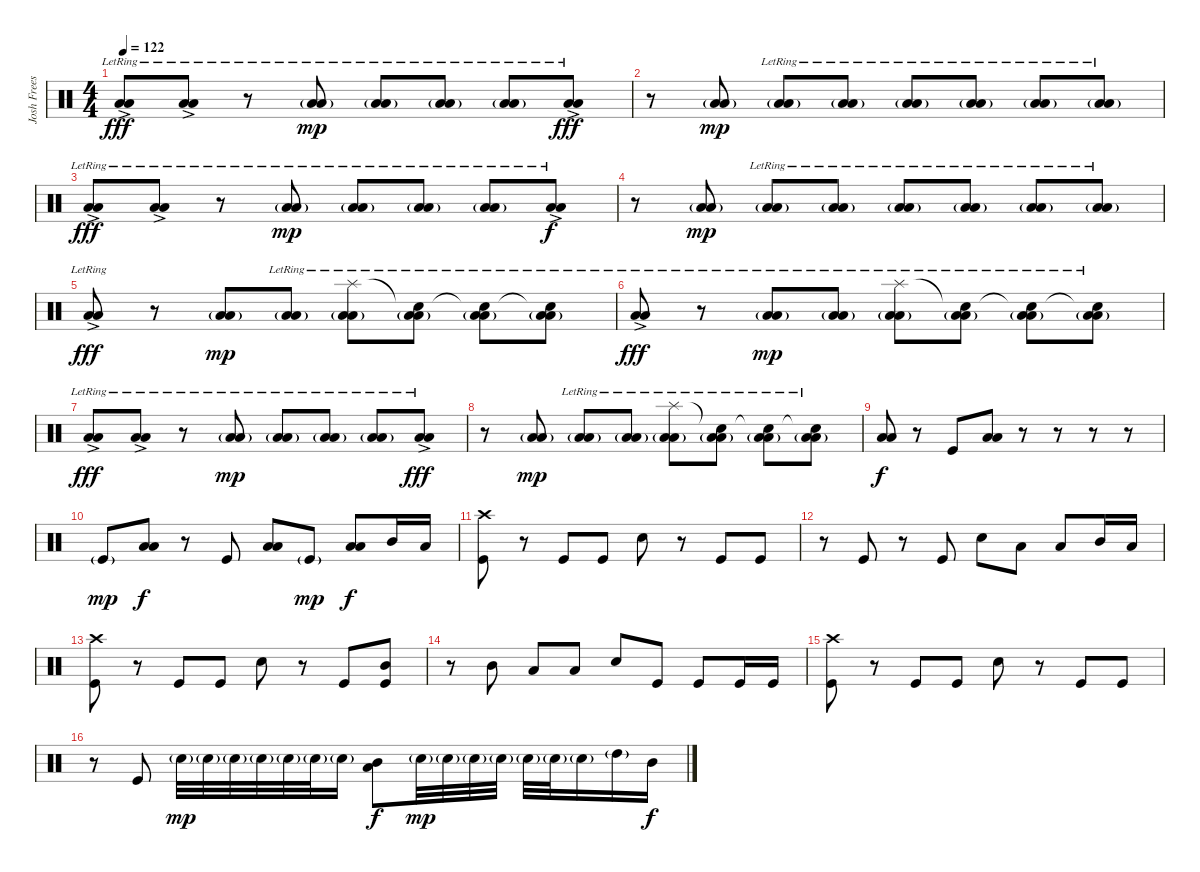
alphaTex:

\track ("Josh Freese" "Josh Frees") {instrument percussion}
\staff {score}
\articulation defaults
\ts (4 4)
\tempo 122
\clef neutral
\ks c
("Low Tom (hit)"{ac lr} "Low Floor Tom (hit)"{ac lr}).8{dy fff volume 14} ("Low Tom (hit)"{ac lr} "Low Floor Tom (hit)"{ac lr}).8 r.8 ("Low Tom (hit)"{g lr} "Low Floor Tom (hit)"{g lr}).8{dy mp} ("Low Tom (hit)"{g lr} "Low Floor Tom (hit)"{g lr}).8 ("Low Tom (hit)"{g lr} "Low Floor Tom (hit)"{g lr}).8 ("Low Tom (hit)"{g lr} "Low Floor Tom (hit)"{g lr}).8 ("Low Tom (hit)"{ac lr} "Low Floor Tom (hit)"{ac lr}).8{dy fff} |
r.8 ("Low Tom (hit)"{g} "Low Floor Tom (hit)"{g}).8{dy mp} ("Low Tom (hit)"{g lr} "Low Floor Tom (hit)"{g lr}).8 ("Low Tom (hit)"{g lr} "Low Floor Tom (hit)"{g lr}).8 ("Low Tom (hit)"{g lr} "Low Floor Tom (hit)"{g lr}).8 ("Low Tom (hit)"{g lr} "Low Floor Tom (hit)"{g lr}).8 ("Low Tom (hit)"{g lr} "Low Floor Tom (hit)"{g lr}).8 ("Low Tom (hit)"{g lr} "Low Floor Tom (hit)"{g lr}).8 |
("Low Tom (hit)"{ac lr} "Low Floor Tom (hit)"{ac lr}).8{dy fff} ("Low Tom (hit)"{ac lr} "Low Floor Tom (hit)"{ac lr}).8 r.8 ("Low Tom (hit)"{g lr} "Low Floor Tom (hit)"{g lr}).8{dy mp} ("Low Tom (hit)"{g lr} "Low Floor Tom (hit)"{g lr}).8 ("Low Tom (hit)"{g lr} "Low Floor Tom (hit)"{g lr}).8 ("Low Tom (hit)"{g lr} "Low Floor Tom (hit)"{g lr}).8 ("Low Tom (hit)"{ac lr} "Low Floor Tom (hit)"{ac lr}).8{dy f} |
r.8 ("Low Tom (hit)"{g} "Low Floor Tom (hit)"{g}).8{dy mp} ("Low Tom (hit)"{g lr} "Low Floor Tom (hit)"{g lr}).8 ("Low Tom (hit)"{g lr} "Low Floor Tom (hit)"{g lr}).8 ("Low Tom (hit)"{g lr} "Low Floor Tom (hit)"{g lr}).8 ("Low Tom (hit)"{g lr} "Low Floor Tom (hit)"{g lr}).8 ("Low Tom (hit)"{g lr} "Low Floor Tom (hit)"{g lr}).8 ("Low Tom (hit)"{g lr} "Low Floor Tom (hit)"{g lr}).8 |
("Low Tom (hit)"{ac lr} "Low Floor Tom (hit)"{ac lr}).8{dy fff} r.8 ("Low Tom (hit)"{g} "Low Floor Tom (hit)"{g}).8{dy mp} ("Low Tom (hit)"{g lr} "Low Floor Tom (hit)"{g lr}).8 ("Splash (hit)" "Low Tom (hit)"{g lr} "Low Floor Tom (hit)"{g lr}).8 ("Snare (hit)"{t} "Low Tom (hit)"{g lr} "Low Floor Tom (hit)"{g lr}).8 ("Snare (hit)"{t} "Low Tom (hit)"{g lr} "Low Floor Tom (hit)"{g lr}).8 ("Snare (hit)"{t} "Low Tom (hit)"{g lr} "Low Floor Tom (hit)"{g lr}).8 |
("Low Tom (hit)"{ac lr} "Low Floor Tom (hit)"{ac lr}).8{dy fff} r.8 ("Low Tom (hit)"{g lr} "Low Floor Tom (hit)"{g lr}).8{dy mp} ("Low Tom (hit)"{g lr} "Low Floor Tom (hit)"{g lr}).8 ("Splash (hit)" "Low Tom (hit)"{g lr} "Low Floor Tom (hit)"{g lr}).8 ("Snare (hit)"{t} "Low Tom (hit)"{g lr} "Low Floor Tom (hit)"{g lr}).8 ("Snare (hit)"{t} "Low Tom (hit)"{g lr} "Low Floor Tom (hit)"{g}).8 ("Snare (hit)"{t} "Low Tom (hit)"{g lr} "Low Floor Tom (hit)"{g lr}).8 |
("Low Tom (hit)"{ac lr} "Low Floor Tom (hit)"{ac lr}).8{dy fff} ("Low Tom (hit)"{ac lr} "Low Floor Tom (hit)"{ac lr}).8 r.8 ("Low Tom (hit)"{g lr} "Low Floor Tom (hit)"{g lr}).8{dy mp} ("Low Tom (hit)"{g lr} "Low Floor Tom (hit)"{g lr}).8 ("Low Tom (hit)"{g lr} "Low Floor Tom (hit)"{g lr}).8 ("Low Tom (hit)"{g lr} "Low Floor Tom (hit)"{g lr}).8 ("Low Tom (hit)"{ac lr} "Low Floor Tom (hit)"{ac lr}).8{dy fff} |
r.8 ("Low Tom (hit)"{g} "Low Floor Tom (hit)"{g}).8{dy mp} ("Low Tom (hit)"{g lr} "Low Floor Tom (hit)"{g lr}).8 ("Low Tom (hit)"{g lr} "Low Floor Tom (hit)"{g lr}).8 ("Splash (hit)" "Low Tom (hit)"{g lr} "Low Floor Tom (hit)"{g lr}).8 ("Snare (hit)"{t} "Low Tom (hit)"{g lr} "Low Floor Tom (hit)"{g lr}).8 ("Snare (hit)"{t} "Low Tom (hit)"{g lr} "Low Floor Tom (hit)"{g lr}).8 ("Snare (hit)"{t} "Low Tom (hit)"{g lr} "Low Floor Tom (hit)"{g lr}).8 |
("Low Tom (hit)" "Low Floor Tom (hit)").8{dy f} r.8 "Kick (hit)".8 ("Low Tom (hit)" "Low Floor Tom (hit)").8 r.8 r.8 r.8 r.8 |
"Kick (hit)"{g}.8{dy mp} ("Low Tom (hit)" "Low Floor Tom (hit)").8{dy f} r.8 "Kick (hit)".8 ("Low Tom (hit)" "Low Floor Tom (hit)").8 "Kick (hit)"{g}.8{dy mp} ("Low Tom (hit)" "Low Floor Tom (hit)").8{dy f} "Mid Tom (hit)".16 "Low Tom (hit)".16 |
("Crash high (hit)" "Kick (hit)").8 r.8 "Kick (hit)".8 "Kick (hit)".8 "Electric Snare (hit)".8 r.8 "Kick (hit)".8 "Kick (hit)".8 |
r.8 "Kick (hit)".8 r.8 "Kick (hit)".8 "Electric Snare (hit)".8 "Low Tom (hit)".8 "Low Floor Tom (hit)".8 "Mid Tom (hit)".16 "Low Tom (hit)".16 |
("Crash high (hit)" "Kick (hit)").8 r.8 "Kick (hit)".8 "Kick (hit)".8 "Electric Snare (hit)".8 r.8 "Kick (hit)".8 ("Mid Tom (hit)" "Kick (hit)").8 |
r.8 "Mid Tom (hit)".8 "Low Tom (hit)".8 "Low Floor Tom (hit)".8 "Electric Snare (hit)".8 "Kick (hit)".8 "Kick (hit)".8 "Kick (hit)".16 "Kick (hit)".16 |
("Crash high (hit)" "Kick (hit)").8 r.8 "Kick (hit)".8 "Kick (hit)".8 "Electric Snare (hit)".8 r.8 "Kick (hit)".8 "Kick (hit)".8 |
r.8 "Kick (hit)".8 "Electric Snare (hit)"{g}.32{dy mp balance 16} "Electric Snare (hit)"{g}.32 "Electric Snare (hit)"{g}.32 "Electric Snare (hit)"{g}.32 "Electric Snare (hit)"{g}.32{balance 0} "Electric Snare (hit)"{g}.32 "Electric Snare (hit)"{g}.16 ("Mid Tom (hit)" "Low Tom (hit)").8{dy f balance 8} "Electric Snare (hit)"{g}.32{dy mp} "Electric Snare (hit)"{g}.32{balance 16} "Electric Snare (hit)"{g}.32 "Electric Snare (hit)"{g}.32 "Electric Snare (hit)"{g}.32{balance 0} "Electric Snare (hit)"{g}.32 "Electric Snare (hit)"{g}.16 "High Tom (hit)"{g}.16 "Mid Tom (hit)".16{dy f}
